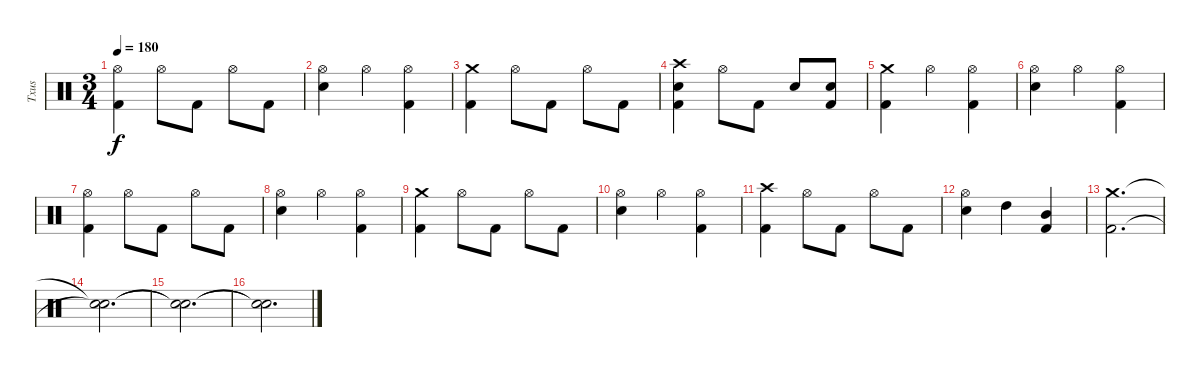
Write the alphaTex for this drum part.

\track ("Txus" "Txus") {instrument percussion}
\staff {score}
\articulation defaults
\ts (3 4)
\tempo 180
\clef neutral
\ks c
("Hi-Hat (open)" "Kick (hit) 2").4{dy f} "Hi-Hat (open)".8 "Kick (hit) 2".8 "Hi-Hat (open)".8 "Kick (hit) 2".8 |
("Hi-Hat (open)" "Snare (hit) 2").4 "Hi-Hat (open)".4 ("Hi-Hat (open)" "Kick (hit) 2").4 |
("Crash medium (hit)" "Kick (hit) 2").4 "Hi-Hat (open)".8 "Kick (hit) 2".8 "Hi-Hat (open)".8 "Kick (hit) 2".8 |
("Crash high (hit)" "Snare (hit) 2" "Kick (hit) 2").4 "Hi-Hat (open)".8 "Kick (hit) 2".8 "Snare (hit) 2".8 ("Snare (hit) 2" "Kick (hit) 2").8 |
("Crash medium (hit)" "Kick (hit) 2").4 "Hi-Hat (open)".4 ("Hi-Hat (open)" "Kick (hit) 2").4 |
("Hi-Hat (open)" "Snare (hit) 2").4 "Hi-Hat (open)".4 ("Hi-Hat (open)" "Kick (hit) 2").4 |
("Hi-Hat (open)" "Kick (hit) 2").4 "Hi-Hat (open)".8 "Kick (hit) 2".8 "Hi-Hat (open)".8 "Kick (hit) 2".8 |
("Hi-Hat (open)" "Snare (hit) 2").4 "Hi-Hat (open)".4 ("Hi-Hat (open)" "Kick (hit) 2").4 |
("Crash medium (hit)" "Kick (hit) 2").4 "Hi-Hat (open)".8 "Kick (hit) 2".8 "Hi-Hat (open)".8 "Kick (hit) 2".8 |
("Hi-Hat (open)" "Snare (hit) 2").4 "Hi-Hat (open)".4 ("Hi-Hat (open)" "Kick (hit) 2").4 |
("Crash high (hit)" "Kick (hit) 2").4 "Hi-Hat (open)".8 "Kick (hit) 2".8 "Hi-Hat (open)".8 "Kick (hit) 2".8 |
("Hi-Hat (open)" "Snare (hit) 2").4 "High Tom (hit)".4 ("Mid Tom (hit)" "Kick (hit) 2").4 |
("Crash medium (hit)" "Kick (hit) 2").2{d} |
("Snare (hit)"{t} "Snare (hit)"{t}).2{d} |
("Snare (hit)"{t} "Snare (hit)"{t}).2{d} |
("Snare (hit)"{t} "Snare (hit)"{t}).2{d}
